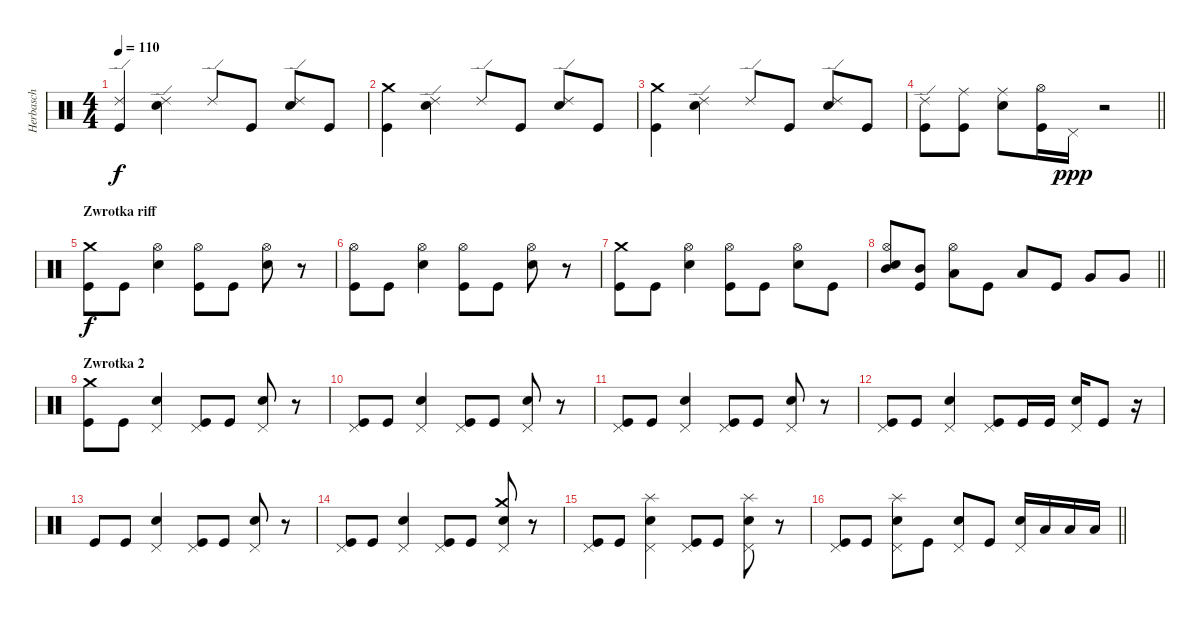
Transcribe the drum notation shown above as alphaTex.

\track ("Herbasch" "Herbasch") {instrument percussion}
\staff {score}
\articulation defaults
\ts (4 4)
\tempo 110
\clef neutral
\ks c
("Kick (hit)" "Ride (edge) 2").4{dy f} ("Electric Snare (hit)" "Ride (edge) 2").4 "Ride (edge) 2".8 "Kick (hit)".8 ("Electric Snare (hit)" "Ride (edge) 2").8 "Kick (hit)".8 |
("Kick (hit)" "Crash medium (hit)").4 ("Electric Snare (hit)" "Ride (edge) 2").4 "Ride (edge) 2".8 "Kick (hit)".8 ("Electric Snare (hit)" "Ride (edge) 2").8 "Kick (hit)".8 |
("Kick (hit)" "Crash medium (hit)").4 ("Electric Snare (hit)" "Ride (edge) 2").4 "Ride (edge) 2".8 "Kick (hit)".8 ("Electric Snare (hit)" "Ride (edge) 2").8 "Kick (hit)".8 |
\barLineRight lightlight
("Kick (hit)" "Ride (edge) 2").8 ("Kick (hit)" "Ride (middle)").8 ("Electric Snare (hit)" "Ride (middle)").8 ("Kick (hit)" "Hi-Hat (open)").16 "Pedal Hi-Hat (hit)".16{dy ppp} r.2 |
\section ("" "Zwrotka riff")
("Kick (hit)" "Crash medium (hit)").8{dy f} "Kick (hit)".8 ("Hi-Hat (open)" "Electric Snare (hit)").4 ("Hi-Hat (open)" "Kick (hit)").8 "Kick (hit)".8 ("Hi-Hat (open)" "Electric Snare (hit)").8 r.8 |
("Hi-Hat (open)" "Kick (hit)").8 "Kick (hit)".8 ("Hi-Hat (open)" "Electric Snare (hit)").4 ("Hi-Hat (open)" "Kick (hit)").8 "Kick (hit)".8 ("Hi-Hat (open)" "Electric Snare (hit)").8 r.8 |
("Kick (hit)" "Crash medium (hit)").8 "Kick (hit)".8 ("Hi-Hat (open)" "Electric Snare (hit)").4 ("Hi-Hat (open)" "Kick (hit)").8 "Kick (hit)".8 ("Hi-Hat (open)" "Electric Snare (hit)").8 "Kick (hit)".8 |
\barLineRight lightlight
("Hi-Hat (open)" "Electric Snare (hit)" "Mid Tom (hit)").8 ("Kick (hit)" "Mid Tom (hit)").8 ("Hi-Hat (open)" "Low Tom (hit)").8 "Kick (hit)".8 "Low Tom (hit)".8 "Kick (hit)".8 "Very Low Tom (hit)".8 "Very Low Tom (hit)".8 |
\section ("" "Zwrotka 2")
("Kick (hit)" "Crash medium (hit)").8 "Kick (hit)".8 ("Pedal Hi-Hat (hit)" "Electric Snare (hit)").4 ("Pedal Hi-Hat (hit)" "Kick (hit)").8 "Kick (hit)".8 ("Pedal Hi-Hat (hit)" "Electric Snare (hit)").8 r.8 |
("Pedal Hi-Hat (hit)" "Kick (hit)").8 "Kick (hit)".8 ("Pedal Hi-Hat (hit)" "Electric Snare (hit)").4 ("Pedal Hi-Hat (hit)" "Kick (hit)").8 "Kick (hit)".8 ("Pedal Hi-Hat (hit)" "Electric Snare (hit)").8 r.8 |
("Pedal Hi-Hat (hit)" "Kick (hit)").8 "Kick (hit)".8 ("Pedal Hi-Hat (hit)" "Electric Snare (hit)").4 ("Pedal Hi-Hat (hit)" "Kick (hit)").8 "Kick (hit)".8 ("Pedal Hi-Hat (hit)" "Electric Snare (hit)").8 r.8 |
("Pedal Hi-Hat (hit)" "Kick (hit)").8 "Kick (hit)".8 ("Pedal Hi-Hat (hit)" "Electric Snare (hit)").4 ("Pedal Hi-Hat (hit)" "Kick (hit)").8 "Kick (hit)".16 "Kick (hit)".16 ("Pedal Hi-Hat (hit)" "Electric Snare (hit)").16 "Kick (hit)".8 r.16 |
"Kick (hit)".8 "Kick (hit)".8 ("Pedal Hi-Hat (hit)" "Electric Snare (hit)").4 ("Pedal Hi-Hat (hit)" "Kick (hit)").8 "Kick (hit)".8 ("Pedal Hi-Hat (hit)" "Electric Snare (hit)").8 r.8 |
("Pedal Hi-Hat (hit)" "Kick (hit)").8 "Kick (hit)".8 ("Pedal Hi-Hat (hit)" "Electric Snare (hit)").4 ("Pedal Hi-Hat (hit)" "Kick (hit)").8 "Kick (hit)".8 ("Pedal Hi-Hat (hit)" "Electric Snare (hit)" "Crash medium (hit)").8 r.8 |
("Pedal Hi-Hat (hit)" "Kick (hit)").8 "Kick (hit)".8 ("Pedal Hi-Hat (hit)" "Electric Snare (hit)" "Splash (hit)").4 ("Pedal Hi-Hat (hit)" "Kick (hit)").8 "Kick (hit)".8 ("Pedal Hi-Hat (hit)" "Electric Snare (hit)" "Splash (hit)").8 r.8 |
\barLineRight lightlight
("Pedal Hi-Hat (hit)" "Kick (hit)").8 "Kick (hit)".8 ("Pedal Hi-Hat (hit)" "Electric Snare (hit)" "Splash (hit)").8 "Kick (hit)".8 ("Pedal Hi-Hat (hit)" "Electric Snare (hit)").8 "Kick (hit)".8 ("Pedal Hi-Hat (hit)" "Electric Snare (hit)").16 "Low Tom (hit)".16 "Low Floor Tom (hit)".16 "Low Floor Tom (hit)".16
